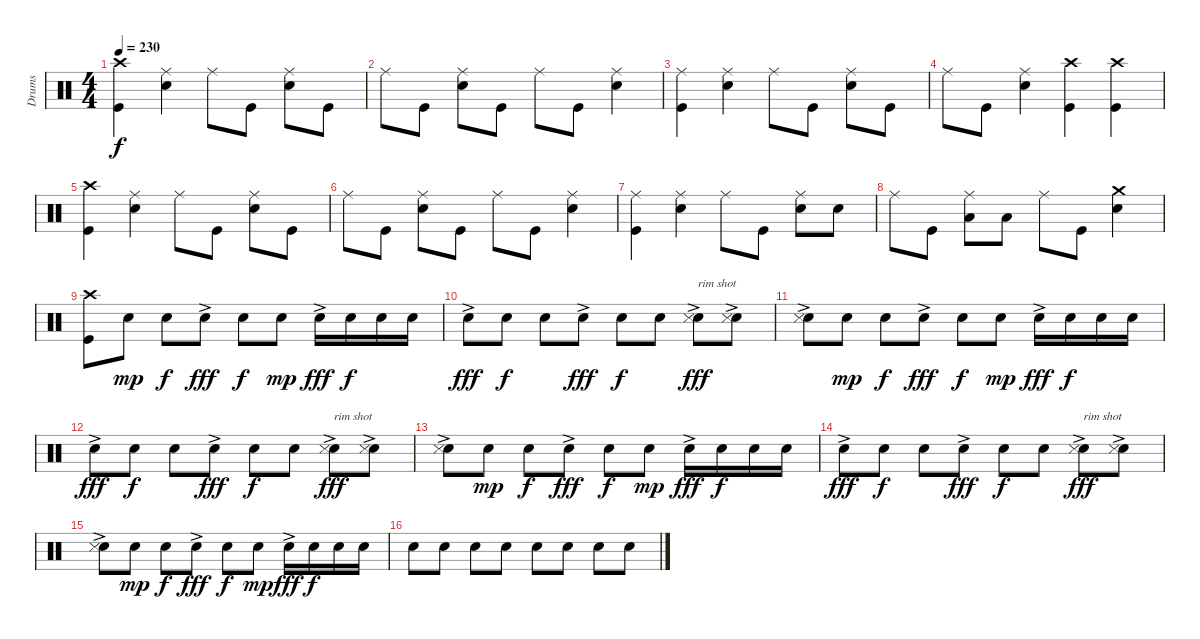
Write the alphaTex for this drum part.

\track ("Drums" "Drums") {instrument percussion}
\staff {score}
\articulation defaults
\ts (4 4)
\tempo 230
\clef neutral
\ks c
("Crash high (hit)" "Kick (hit)").4{dy f} ("Ride (middle)" "Electric Snare (hit)").4 "Ride (middle)".8 "Kick (hit)".8 ("Ride (middle)" "Electric Snare (hit)").8 "Kick (hit)".8 |
"Ride (middle)".8 "Kick (hit)".8 ("Ride (middle)" "Electric Snare (hit)").8 "Kick (hit)".8 "Ride (middle)".8 "Kick (hit)".8 ("Ride (middle)" "Electric Snare (hit)").4 |
("Ride (middle)" "Kick (hit)").4 ("Ride (middle)" "Electric Snare (hit)").4 "Ride (middle)".8 "Kick (hit)".8 ("Ride (middle)" "Electric Snare (hit)").8 "Kick (hit)".8 |
"Ride (middle)".8 "Kick (hit)".8 ("Ride (middle)" "Electric Snare (hit)").4 ("Crash high (hit)" "Kick (hit)").4 ("Crash high (hit)" "Kick (hit)").4 |
("Crash high (hit)" "Kick (hit)").4 ("Ride (middle)" "Electric Snare (hit)").4 "Ride (middle)".8 "Kick (hit)".8 ("Ride (middle)" "Electric Snare (hit)").8 "Kick (hit)".8 |
"Ride (middle)".8 "Kick (hit)".8 ("Ride (middle)" "Electric Snare (hit)").8 "Kick (hit)".8 "Ride (middle)".8 "Kick (hit)".8 ("Ride (middle)" "Electric Snare (hit)").4 |
("Ride (middle)" "Kick (hit)").4 ("Ride (middle)" "Electric Snare (hit)").4 "Ride (middle)".8 "Kick (hit)".8 ("Ride (middle)" "Electric Snare (hit)").8 "Electric Snare (hit)".8 |
"Ride (middle)".8 "Kick (hit)".8 ("Ride (middle)" "Low Tom (hit)").8 "Low Tom (hit)".8 "Ride (middle)".8 "Kick (hit)".8 ("Crash medium (hit)" "Electric Snare (hit)").4 |
("Crash high (hit)" "Kick (hit)").8 "Electric Snare (hit)".8{dy mp} "Electric Snare (hit)".8{dy f} "Electric Snare (hit)"{ac}.8{dy fff} "Electric Snare (hit)".8{dy f} "Electric Snare (hit)".8{dy mp} "Electric Snare (hit)"{ac}.16{dy fff} "Electric Snare (hit)".16{dy f} "Electric Snare (hit)".16 "Electric Snare (hit)".16 |
"Electric Snare (hit)"{ac}.8{dy fff} "Electric Snare (hit)".8{dy f} "Electric Snare (hit)".8 "Electric Snare (hit)"{ac}.8{dy fff} "Electric Snare (hit)".8{dy f} "Electric Snare (hit)".8 ("Electric Snare (hit)"{ac} "Snare (side stick) 3"{ac}).8{txt "rim shot" dy fff} ("Electric Snare (hit)"{ac} "Snare (side stick) 3"{ac}).8 |
("Electric Snare (hit)"{ac} "Snare (side stick) 3"{ac}).8 "Electric Snare (hit)".8{dy mp} "Electric Snare (hit)".8{dy f} "Electric Snare (hit)"{ac}.8{dy fff} "Electric Snare (hit)".8{dy f} "Electric Snare (hit)".8{dy mp} "Electric Snare (hit)"{ac}.16{dy fff} "Electric Snare (hit)".16{dy f} "Electric Snare (hit)".16 "Electric Snare (hit)".16 |
"Electric Snare (hit)"{ac}.8{dy fff} "Electric Snare (hit)".8{dy f} "Electric Snare (hit)".8 "Electric Snare (hit)"{ac}.8{dy fff} "Electric Snare (hit)".8{dy f} "Electric Snare (hit)".8 ("Electric Snare (hit)"{ac} "Snare (side stick) 3"{ac}).8{txt "rim shot" dy fff} ("Electric Snare (hit)"{ac} "Snare (side stick) 3"{ac}).8 |
("Electric Snare (hit)"{ac} "Snare (side stick) 3"{ac}).8 "Electric Snare (hit)".8{dy mp} "Electric Snare (hit)".8{dy f} "Electric Snare (hit)"{ac}.8{dy fff} "Electric Snare (hit)".8{dy f} "Electric Snare (hit)".8{dy mp} "Electric Snare (hit)"{ac}.16{dy fff} "Electric Snare (hit)".16{dy f} "Electric Snare (hit)".16 "Electric Snare (hit)".16 |
"Electric Snare (hit)"{ac}.8{dy fff} "Electric Snare (hit)".8{dy f} "Electric Snare (hit)".8 "Electric Snare (hit)"{ac}.8{dy fff} "Electric Snare (hit)".8{dy f} "Electric Snare (hit)".8 ("Electric Snare (hit)"{ac} "Snare (side stick) 3"{ac}).8{txt "rim shot" dy fff} ("Electric Snare (hit)"{ac} "Snare (side stick) 3"{ac}).8 |
("Electric Snare (hit)"{ac} "Snare (side stick) 3"{ac}).8 "Electric Snare (hit)".8{dy mp} "Electric Snare (hit)".8{dy f} "Electric Snare (hit)"{ac}.8{dy fff} "Electric Snare (hit)".8{dy f} "Electric Snare (hit)".8{dy mp} "Electric Snare (hit)"{ac}.16{dy fff} "Electric Snare (hit)".16{dy f} "Electric Snare (hit)".16 "Electric Snare (hit)".16 |
"Electric Snare (hit)".8 "Electric Snare (hit)".8 "Electric Snare (hit)".8 "Electric Snare (hit)".8 "Electric Snare (hit)".8 "Electric Snare (hit)".8 "Electric Snare (hit)".8 "Electric Snare (hit)".8
